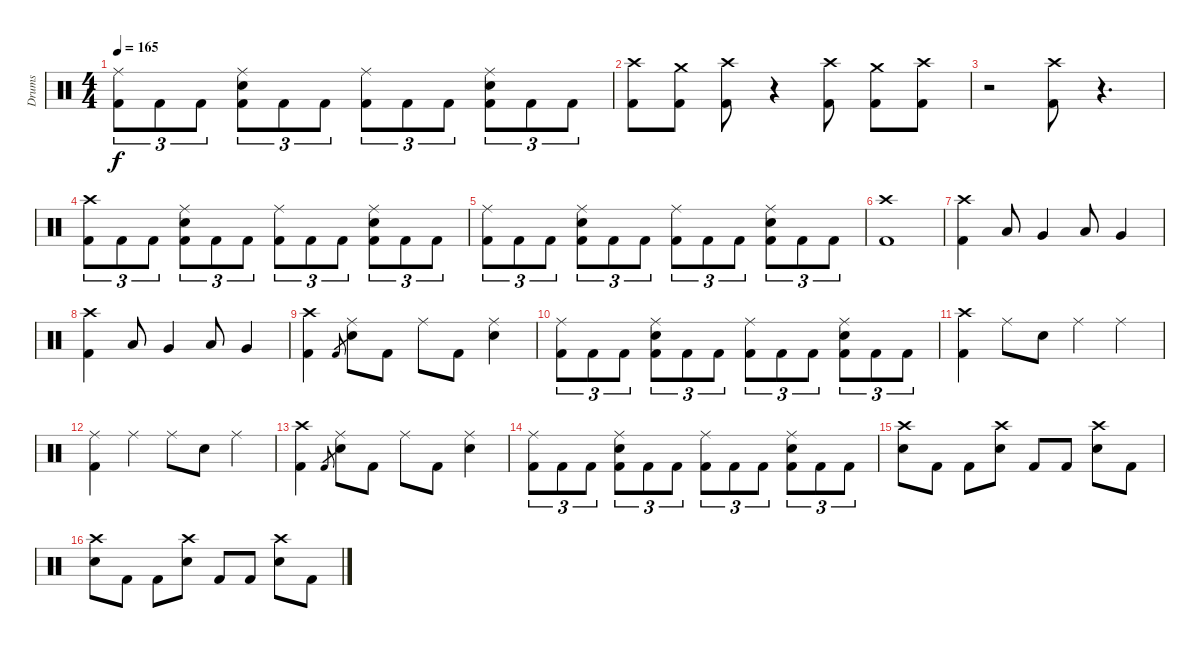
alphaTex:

\track ("Drums" "Drums") {instrument percussion}
\staff {score}
\articulation defaults
\ts (4 4)
\tempo 165
\clef neutral
\ks c
("Ride (middle)" "Kick (hit) 2").8{tu (3 2) dy f} "Kick (hit) 2".8{tu (3 2)} "Kick (hit) 2".8{tu (3 2)} ("Ride (middle)" "Electric Snare (hit)" "Kick (hit) 2").8{tu (3 2)} "Kick (hit) 2".8{tu (3 2)} "Kick (hit) 2".8{tu (3 2)} ("Ride (middle)" "Kick (hit) 2").8{tu (3 2)} "Kick (hit) 2".8{tu (3 2)} "Kick (hit) 2".8{tu (3 2)} ("Ride (middle)" "Electric Snare (hit)" "Kick (hit) 2").8{tu (3 2)} "Kick (hit) 2".8{tu (3 2)} "Kick (hit) 2".8{tu (3 2)} |
("Crash high (hit)" "Kick (hit) 2").8 ("Crash medium (hit)" "Kick (hit) 2").8 ("Crash high (hit)" "Kick (hit) 2").8 r.4{volume 0} ("Crash high (hit)" "Kick (hit) 2").8{volume 13} ("Crash medium (hit)" "Kick (hit) 2").8 ("Crash high (hit)" "Kick (hit) 2").8 |
r.2{volume 0} ("Crash high (hit)" "Kick (hit) 2").8{volume 13} r.4{d volume 0} |
("Crash high (hit)" "Kick (hit) 2").8{tu (3 2) volume 13} "Kick (hit) 2".8{tu (3 2)} "Kick (hit) 2".8{tu (3 2)} ("Ride (middle)" "Electric Snare (hit)" "Kick (hit) 2").8{tu (3 2)} "Kick (hit) 2".8{tu (3 2)} "Kick (hit) 2".8{tu (3 2)} ("Ride (middle)" "Kick (hit) 2").8{tu (3 2)} "Kick (hit) 2".8{tu (3 2)} "Kick (hit) 2".8{tu (3 2)} ("Ride (middle)" "Electric Snare (hit)" "Kick (hit) 2").8{tu (3 2)} "Kick (hit) 2".8{tu (3 2)} "Kick (hit) 2".8{tu (3 2)} |
("Ride (middle)" "Kick (hit) 2").8{tu (3 2)} "Kick (hit) 2".8{tu (3 2)} "Kick (hit) 2".8{tu (3 2)} ("Ride (middle)" "Electric Snare (hit)" "Kick (hit) 2").8{tu (3 2)} "Kick (hit) 2".8{tu (3 2)} "Kick (hit) 2".8{tu (3 2)} ("Ride (middle)" "Kick (hit) 2").8{tu (3 2)} "Kick (hit) 2".8{tu (3 2)} "Kick (hit) 2".8{tu (3 2)} ("Ride (middle)" "Electric Snare (hit)" "Kick (hit) 2").8{tu (3 2)} "Kick (hit) 2".8{tu (3 2)} "Kick (hit) 2".8{tu (3 2)} |
("Crash high (hit)" "Kick (hit) 2").1 |
("Crash high (hit)" "Kick (hit) 2").4 "Low Tom (hit)".8 "Very Low Tom (hit)".4 "Low Floor Tom (hit)".8 "Very Low Tom (hit)".4 |
("Crash high (hit)" "Kick (hit) 2").4 "Low Tom (hit)".8 "Very Low Tom (hit)".4 "Low Floor Tom (hit)".8 "Very Low Tom (hit)".4 |
("Crash high (hit)" "Kick (hit) 2").4 "Kick (hit) 2".8{gr} ("Ride (middle)" "Electric Snare (hit)").8 "Kick (hit) 2".8 "Ride (middle)".8 "Kick (hit) 2".8 ("Ride (middle)" "Electric Snare (hit)").4 |
("Ride (middle)" "Kick (hit) 2").8{tu (3 2)} "Kick (hit) 2".8{tu (3 2)} "Kick (hit) 2".8{tu (3 2)} ("Ride (middle)" "Electric Snare (hit)" "Kick (hit) 2").8{tu (3 2)} "Kick (hit) 2".8{tu (3 2)} "Kick (hit) 2".8{tu (3 2)} ("Ride (middle)" "Kick (hit) 2").8{tu (3 2)} "Kick (hit) 2".8{tu (3 2)} "Kick (hit) 2".8{tu (3 2)} ("Ride (middle)" "Electric Snare (hit)" "Kick (hit) 2").8{tu (3 2)} "Kick (hit) 2".8{tu (3 2)} "Kick (hit) 2".8{tu (3 2)} |
("Crash high (hit)" "Kick (hit) 2").4 "Ride (middle)".8 "Electric Snare (hit)".8 "Ride (middle)".4 "Ride (middle)".4 |
("Ride (middle)" "Kick (hit) 2").4 "Ride (middle)".4 "Ride (middle)".8 "Electric Snare (hit)".8 "Ride (middle)".4 |
("Crash high (hit)" "Kick (hit) 2").4 "Kick (hit) 2".8{gr} ("Ride (middle)" "Electric Snare (hit)").8 "Kick (hit) 2".8 "Ride (middle)".8 "Kick (hit) 2".8 ("Ride (middle)" "Electric Snare (hit)").4 |
("Ride (middle)" "Kick (hit) 2").8{tu (3 2)} "Kick (hit) 2".8{tu (3 2)} "Kick (hit) 2".8{tu (3 2)} ("Ride (middle)" "Electric Snare (hit)" "Kick (hit) 2").8{tu (3 2)} "Kick (hit) 2".8{tu (3 2)} "Kick (hit) 2".8{tu (3 2)} ("Ride (middle)" "Kick (hit) 2").8{tu (3 2)} "Kick (hit) 2".8{tu (3 2)} "Kick (hit) 2".8{tu (3 2)} ("Ride (middle)" "Electric Snare (hit)" "Kick (hit) 2").8{tu (3 2)} "Kick (hit) 2".8{tu (3 2)} "Kick (hit) 2".8{tu (3 2)} |
("Crash high (hit)" "Electric Snare (hit)").8 "Kick (hit) 2".8 "Kick (hit) 2".8 ("Crash high (hit)" "Electric Snare (hit)").8 "Kick (hit) 2".8 "Kick (hit) 2".8 ("Crash high (hit)" "Electric Snare (hit)").8 "Kick (hit) 2".8 |
("Crash high (hit)" "Electric Snare (hit)").8 "Kick (hit) 2".8 "Kick (hit) 2".8 ("Crash high (hit)" "Electric Snare (hit)").8 "Kick (hit) 2".8 "Kick (hit) 2".8 ("Crash high (hit)" "Electric Snare (hit)").8 "Kick (hit) 2".8
